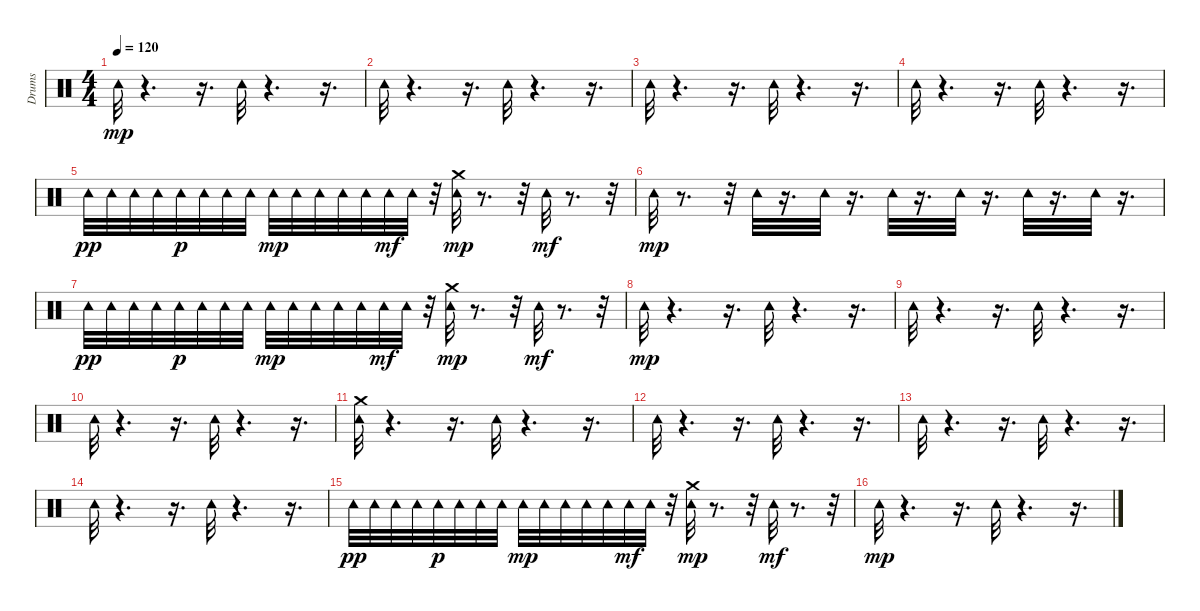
\track ("Drums" "Drums") {instrument percussion}
\staff {score}
\articulation defaults
\ts (4 4)
\tempo 120
\clef neutral
\ks c "Tambourine (hit)".32{dy mp}
r.4{d} r.16{d} "Tambourine (hit)".32 r.4{d} r.16{d} |
"Tambourine (hit)".32 r.4{d} r.16{d} "Tambourine (hit)".32 r.4{d} r.16{d} |
"Tambourine (hit)".32 r.4{d} r.16{d} "Tambourine (hit)".32 r.4{d} r.16{d} |
"Tambourine (hit)".32 r.4{d} r.16{d} "Tambourine (hit)".32 r.4{d} r.16{d} |
"Tambourine (hit)".32{dy pp} "Tambourine (hit)".32 "Tambourine (hit)".32 "Tambourine (hit)".32 "Tambourine (hit)".32{dy p} "Tambourine (hit)".32 "Tambourine (hit)".32 "Tambourine (hit)".32 "Tambourine (hit)".32{dy mp} "Tambourine (hit)".32 "Tambourine (hit)".32 "Tambourine (hit)".32 "Tambourine (hit)".32 "Tambourine (hit)".32{dy mf} "Tambourine (hit)".32 r.32 ("Tambourine (hit)" "Crash medium (hit)").32{dy mp} r.8{d} r.32 "Tambourine (hit)".32{dy mf} r.8{d} r.32 |
"Tambourine (hit)".32{dy mp} r.8{d} r.32 "Tambourine (hit)".32 r.16{d} "Tambourine (hit)".32 r.16{d} "Tambourine (hit)".32 r.16{d} "Tambourine (hit)".32 r.16{d} "Tambourine (hit)".32 r.16{d} "Tambourine (hit)".32 r.16{d} |
"Tambourine (hit)".32{dy pp} "Tambourine (hit)".32 "Tambourine (hit)".32 "Tambourine (hit)".32 "Tambourine (hit)".32{dy p} "Tambourine (hit)".32 "Tambourine (hit)".32 "Tambourine (hit)".32 "Tambourine (hit)".32{dy mp} "Tambourine (hit)".32 "Tambourine (hit)".32 "Tambourine (hit)".32 "Tambourine (hit)".32 "Tambourine (hit)".32{dy mf} "Tambourine (hit)".32 r.32 ("Tambourine (hit)" "Crash medium (hit)").32{dy mp} r.8{d} r.32 "Tambourine (hit)".32{dy mf} r.8{d} r.32 |
"Tambourine (hit)".32{dy mp} r.4{d} r.16{d} "Tambourine (hit)".32 r.4{d} r.16{d} |
"Tambourine (hit)".32 r.4{d} r.16{d} "Tambourine (hit)".32 r.4{d} r.16{d} |
"Tambourine (hit)".32 r.4{d} r.16{d} "Tambourine (hit)".32 r.4{d} r.16{d} |
("Tambourine (hit)" "Crash medium (hit)").32 r.4{d} r.16{d} "Tambourine (hit)".32 r.4{d} r.16{d} |
"Tambourine (hit)".32 r.4{d} r.16{d} "Tambourine (hit)".32 r.4{d} r.16{d} |
"Tambourine (hit)".32 r.4{d} r.16{d} "Tambourine (hit)".32 r.4{d} r.16{d} |
"Tambourine (hit)".32 r.4{d} r.16{d} "Tambourine (hit)".32 r.4{d} r.16{d} |
"Tambourine (hit)".32{dy pp} "Tambourine (hit)".32 "Tambourine (hit)".32 "Tambourine (hit)".32 "Tambourine (hit)".32{dy p} "Tambourine (hit)".32 "Tambourine (hit)".32 "Tambourine (hit)".32 "Tambourine (hit)".32{dy mp} "Tambourine (hit)".32 "Tambourine (hit)".32 "Tambourine (hit)".32 "Tambourine (hit)".32 "Tambourine (hit)".32{dy mf} "Tambourine (hit)".32 r.32 ("Crash medium (hit)" "Tambourine (hit)").32{dy mp} r.8{d} r.32 "Tambourine (hit)".32{dy mf} r.8{d} r.32 |
"Tambourine (hit)".32{dy mp} r.4{d} r.16{d} "Tambourine (hit)".32 r.4{d} r.16{d}
